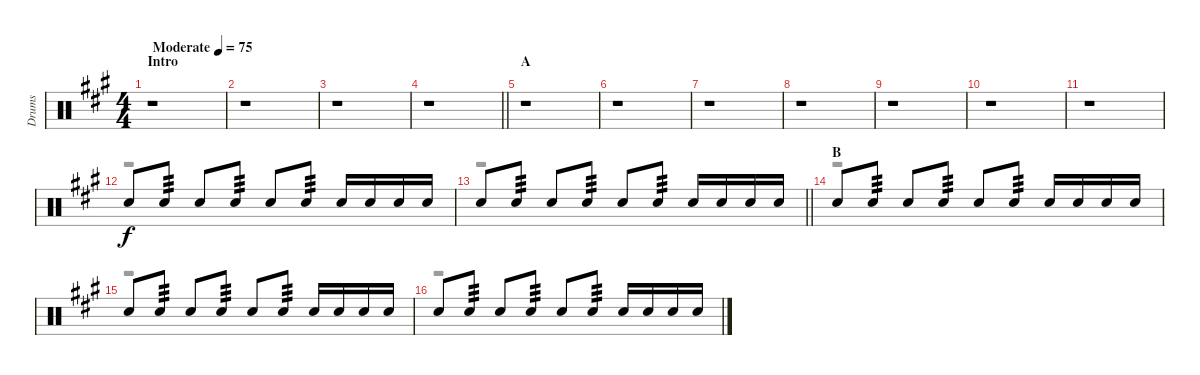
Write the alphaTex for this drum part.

\track ("Drums" "Drums") {instrument percussion}
\staff {score}
\articulation defaults
\voice
\ts (4 4)
\section ("" "Intro")
\tempo (75 "Moderate")
\clef neutral
\ks a
r.1{dy f} |
r.1 |
r.1 |
\barLineRight lightlight
r.1 |
\section ("" "A")
r.1 |
r.1 |
r.1 |
r.1 |
r.1 |
r.1 |
r.1 |
"Snare (hit) 2".8 "Snare (hit) 2".8{tp 3} "Snare (hit) 2".8 "Snare (hit) 2".8{tp 3} "Snare (hit) 2".8 "Snare (hit) 2".8{tp 3} "Snare (hit) 2".16 "Snare (hit) 2".16 "Snare (hit) 2".16 "Snare (hit) 2".16 |
\barLineRight lightlight "Snare (hit) 2".8 "Snare (hit) 2".8{tp 3} "Snare (hit) 2".8 "Snare (hit) 2".8{tp 3} "Snare (hit) 2".8 "Snare (hit) 2".8{tp 3} "Snare (hit) 2".16 "Snare (hit) 2".16 "Snare (hit) 2".16 "Snare (hit) 2".16
|
\section ("" "B")
"Snare (hit) 2".8 "Snare (hit) 2".8{tp 3} "Snare (hit) 2".8 "Snare (hit) 2".8{tp 3} "Snare (hit) 2".8 "Snare (hit) 2".8{tp 3} "Snare (hit) 2".16 "Snare (hit) 2".16 "Snare (hit) 2".16 "Snare (hit) 2".16 |
"Snare (hit) 2".8 "Snare (hit) 2".8{tp 3} "Snare (hit) 2".8 "Snare (hit) 2".8{tp 3} "Snare (hit) 2".8 "Snare (hit) 2".8{tp 3} "Snare (hit) 2".16 "Snare (hit) 2".16 "Snare (hit) 2".16 "Snare (hit) 2".16 |
"Snare (hit) 2".8 "Snare (hit) 2".8{tp 3} "Snare (hit) 2".8 "Snare (hit) 2".8{tp 3} "Snare (hit) 2".8 "Snare (hit) 2".8{tp 3} "Snare (hit) 2".16 "Snare (hit) 2".16 "Snare (hit) 2".16 "Snare (hit) 2".16
\voice
\clef neutral
\ottava regular
\simile none
\ks a
r.1{dy fff} |
r.1 |
r.1 |
\barLineRight lightlight
r.1 |
r.1 |
r.1 |
r.1 |
r.1 |
r.1 |
r.1 |
r.1 |
r.1 |
\barLineRight lightlight
r.1 |
r.1 |
r.1 |
r.1
